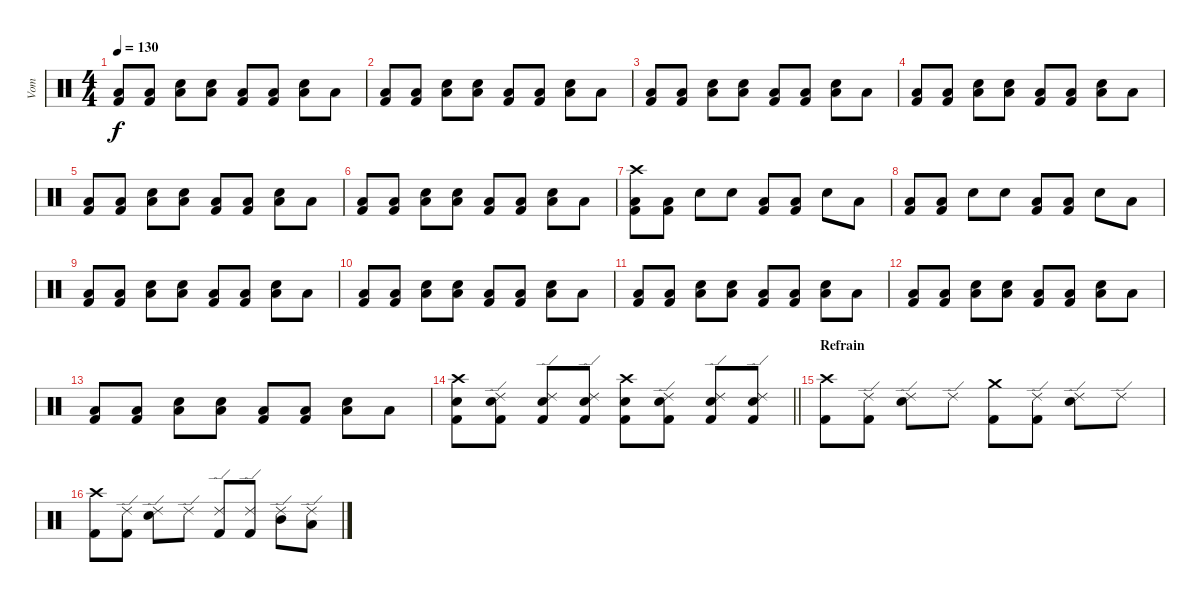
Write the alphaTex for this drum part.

\track ("Vom" "Vom") {instrument percussion}
\staff {score}
\articulation defaults
\ts (4 4)
\tempo 130
\clef neutral
\ks c
("Low Floor Tom (hit)" "Kick (hit) 2").8{dy f} ("Low Floor Tom (hit)" "Kick (hit) 2").8 ("Snare (hit) 2" "Low Floor Tom (hit)").8 ("Snare (hit) 2" "Low Floor Tom (hit)").8 ("Low Floor Tom (hit)" "Kick (hit) 2").8 ("Low Floor Tom (hit)" "Kick (hit) 2").8 ("Snare (hit) 2" "Low Floor Tom (hit)").8 "Low Floor Tom (hit)".8 |
("Low Floor Tom (hit)" "Kick (hit) 2").8 ("Low Floor Tom (hit)" "Kick (hit) 2").8 ("Snare (hit) 2" "Low Floor Tom (hit)").8 ("Snare (hit) 2" "Low Floor Tom (hit)").8 ("Low Floor Tom (hit)" "Kick (hit) 2").8 ("Low Floor Tom (hit)" "Kick (hit) 2").8 ("Snare (hit) 2" "Low Floor Tom (hit)").8 "Low Floor Tom (hit)".8 |
("Low Floor Tom (hit)" "Kick (hit) 2").8 ("Low Floor Tom (hit)" "Kick (hit) 2").8 ("Snare (hit) 2" "Low Floor Tom (hit)").8 ("Snare (hit) 2" "Low Floor Tom (hit)").8 ("Low Floor Tom (hit)" "Kick (hit) 2").8 ("Low Floor Tom (hit)" "Kick (hit) 2").8 ("Snare (hit) 2" "Low Floor Tom (hit)").8 "Low Floor Tom (hit)".8 |
("Low Floor Tom (hit)" "Kick (hit) 2").8 ("Low Floor Tom (hit)" "Kick (hit) 2").8 ("Snare (hit) 2" "Low Floor Tom (hit)").8 ("Snare (hit) 2" "Low Floor Tom (hit)").8 ("Low Floor Tom (hit)" "Kick (hit) 2").8 ("Low Floor Tom (hit)" "Kick (hit) 2").8 ("Snare (hit) 2" "Low Floor Tom (hit)").8 "Low Floor Tom (hit)".8 |
("Low Floor Tom (hit)" "Kick (hit) 2").8 ("Low Floor Tom (hit)" "Kick (hit) 2").8 ("Snare (hit) 2" "Low Floor Tom (hit)").8 ("Snare (hit) 2" "Low Floor Tom (hit)").8 ("Low Floor Tom (hit)" "Kick (hit) 2").8 ("Low Floor Tom (hit)" "Kick (hit) 2").8 ("Snare (hit) 2" "Low Floor Tom (hit)").8 "Low Floor Tom (hit)".8 |
("Low Floor Tom (hit)" "Kick (hit) 2").8 ("Low Floor Tom (hit)" "Kick (hit) 2").8 ("Snare (hit) 2" "Low Floor Tom (hit)").8 ("Snare (hit) 2" "Low Floor Tom (hit)").8 ("Low Floor Tom (hit)" "Kick (hit) 2").8 ("Low Floor Tom (hit)" "Kick (hit) 2").8 ("Snare (hit) 2" "Low Floor Tom (hit)").8 "Low Floor Tom (hit)".8 |
("Crash high (hit)" "Low Floor Tom (hit)" "Kick (hit) 2").8 ("Low Floor Tom (hit)" "Kick (hit) 2").8 "Snare (hit) 2".8 "Snare (hit) 2".8 ("Low Floor Tom (hit)" "Kick (hit) 2").8 ("Low Floor Tom (hit)" "Kick (hit) 2").8 "Snare (hit) 2".8 "Low Floor Tom (hit)".8 |
("Low Floor Tom (hit)" "Kick (hit) 2").8 ("Low Floor Tom (hit)" "Kick (hit) 2").8 "Snare (hit) 2".8 "Snare (hit) 2".8 ("Low Floor Tom (hit)" "Kick (hit) 2").8 ("Low Floor Tom (hit)" "Kick (hit) 2").8 "Snare (hit) 2".8 "Low Floor Tom (hit)".8 |
("Low Floor Tom (hit)" "Kick (hit) 2").8 ("Low Floor Tom (hit)" "Kick (hit) 2").8 ("Snare (hit) 2" "Low Floor Tom (hit)").8 ("Snare (hit) 2" "Low Floor Tom (hit)").8 ("Low Floor Tom (hit)" "Kick (hit) 2").8 ("Low Floor Tom (hit)" "Kick (hit) 2").8 ("Snare (hit) 2" "Low Floor Tom (hit)").8 "Low Floor Tom (hit)".8 |
("Low Floor Tom (hit)" "Kick (hit) 2").8 ("Low Floor Tom (hit)" "Kick (hit) 2").8 ("Snare (hit) 2" "Low Floor Tom (hit)").8 ("Snare (hit) 2" "Low Floor Tom (hit)").8 ("Low Floor Tom (hit)" "Kick (hit) 2").8 ("Low Floor Tom (hit)" "Kick (hit) 2").8 ("Snare (hit) 2" "Low Floor Tom (hit)").8 "Low Floor Tom (hit)".8 |
("Low Floor Tom (hit)" "Kick (hit) 2").8 ("Low Floor Tom (hit)" "Kick (hit) 2").8 ("Snare (hit) 2" "Low Floor Tom (hit)").8 ("Snare (hit) 2" "Low Floor Tom (hit)").8 ("Low Floor Tom (hit)" "Kick (hit) 2").8 ("Low Floor Tom (hit)" "Kick (hit) 2").8 ("Snare (hit) 2" "Low Floor Tom (hit)").8 "Low Floor Tom (hit)".8 |
("Low Floor Tom (hit)" "Kick (hit) 2").8 ("Low Floor Tom (hit)" "Kick (hit) 2").8 ("Snare (hit) 2" "Low Floor Tom (hit)").8 ("Snare (hit) 2" "Low Floor Tom (hit)").8 ("Low Floor Tom (hit)" "Kick (hit) 2").8 ("Low Floor Tom (hit)" "Kick (hit) 2").8 ("Snare (hit) 2" "Low Floor Tom (hit)").8 "Low Floor Tom (hit)".8 |
("Low Floor Tom (hit)" "Kick (hit) 2").8 ("Low Floor Tom (hit)" "Kick (hit) 2").8 ("Snare (hit) 2" "Low Floor Tom (hit)").8 ("Snare (hit) 2" "Low Floor Tom (hit)").8 ("Low Floor Tom (hit)" "Kick (hit) 2").8 ("Low Floor Tom (hit)" "Kick (hit) 2").8 ("Snare (hit) 2" "Low Floor Tom (hit)").8 "Low Floor Tom (hit)".8 |
\barLineRight lightlight
("Crash high (hit)" "Snare (hit) 2" "Kick (hit) 2").8 ("Ride (edge) 2" "Snare (hit) 2" "Kick (hit) 2").8 ("Ride (edge) 2" "Snare (hit) 2" "Kick (hit) 2").8 ("Ride (edge) 2" "Snare (hit) 2" "Kick (hit) 2").8 ("Crash high (hit)" "Snare (hit) 2" "Kick (hit) 2").8 ("Ride (edge) 2" "Snare (hit) 2" "Kick (hit) 2").8 ("Ride (edge) 2" "Snare (hit) 2" "Kick (hit) 2").8 ("Ride (edge) 2" "Snare (hit) 2" "Kick (hit) 2").8 |
\section ("" "Refrain")
("Crash high (hit)" "Kick (hit) 2").8 ("Ride (edge) 2" "Kick (hit) 2").8 ("Ride (edge) 2" "Snare (hit) 2").8 "Ride (edge) 2".8 ("Crash medium (hit)" "Kick (hit) 2").8 ("Ride (edge) 2" "Kick (hit) 2").8 ("Ride (edge) 2" "Snare (hit) 2").8 "Ride (edge) 2".8 |
("Crash high (hit)" "Kick (hit) 2").8 ("Ride (edge) 2" "Kick (hit) 2").8 ("Ride (edge) 2" "Snare (hit) 2").8 "Ride (edge) 2".8 ("Ride (edge) 2" "Kick (hit) 2").8 ("Ride (edge) 2" "Kick (hit) 2").8 ("Ride (edge) 2" "Mid Tom (hit)").8 ("Ride (edge) 2" "Low Tom (hit)").8
